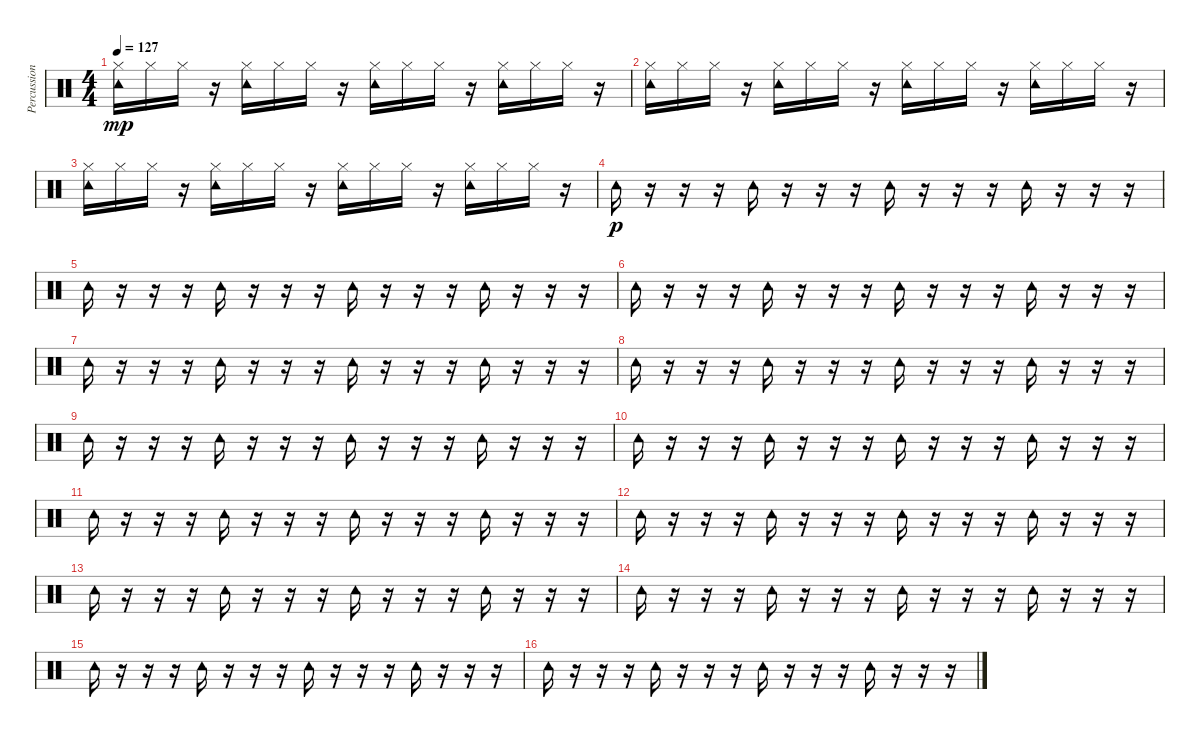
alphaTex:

\track ("Percussions" "Percussion") {instrument percussion}
\staff {score}
\articulation defaults
\ts (4 4)
\tempo 127
\clef neutral
\ks c
("Tambourine (hit)" "Hi-Hat (closed)").16{dy mp} "Hi-Hat (closed)".16 "Hi-Hat (closed)".16 r.16 ("Tambourine (hit)" "Hi-Hat (closed)").16 "Hi-Hat (closed)".16 "Hi-Hat (closed)".16 r.16 ("Tambourine (hit)" "Hi-Hat (closed)").16 "Hi-Hat (closed)".16 "Hi-Hat (closed)".16 r.16 ("Tambourine (hit)" "Hi-Hat (closed)").16 "Hi-Hat (closed)".16 "Hi-Hat (closed)".16 r.16 |
("Tambourine (hit)" "Hi-Hat (closed)").16 "Hi-Hat (closed)".16 "Hi-Hat (closed)".16 r.16 ("Tambourine (hit)" "Hi-Hat (closed)").16 "Hi-Hat (closed)".16 "Hi-Hat (closed)".16 r.16 ("Tambourine (hit)" "Hi-Hat (closed)").16 "Hi-Hat (closed)".16 "Hi-Hat (closed)".16 r.16 ("Tambourine (hit)" "Hi-Hat (closed)").16 "Hi-Hat (closed)".16 "Hi-Hat (closed)".16 r.16 |
("Tambourine (hit)" "Hi-Hat (closed)").16 "Hi-Hat (closed)".16 "Hi-Hat (closed)".16 r.16 ("Tambourine (hit)" "Hi-Hat (closed)").16 "Hi-Hat (closed)".16 "Hi-Hat (closed)".16 r.16 ("Tambourine (hit)" "Hi-Hat (closed)").16 "Hi-Hat (closed)".16 "Hi-Hat (closed)".16 r.16 ("Tambourine (hit)" "Hi-Hat (closed)").16 "Hi-Hat (closed)".16 "Hi-Hat (closed)".16 r.16 |
"Tambourine (hit)".16{dy p} r.16 r.16 r.16 "Tambourine (hit)".16 r.16 r.16 r.16 "Tambourine (hit)".16 r.16 r.16 r.16 "Tambourine (hit)".16 r.16 r.16 r.16 |
"Tambourine (hit)".16 r.16 r.16 r.16 "Tambourine (hit)".16 r.16 r.16 r.16 "Tambourine (hit)".16 r.16 r.16 r.16 "Tambourine (hit)".16 r.16 r.16 r.16 |
"Tambourine (hit)".16 r.16 r.16 r.16 "Tambourine (hit)".16 r.16 r.16 r.16 "Tambourine (hit)".16 r.16 r.16 r.16 "Tambourine (hit)".16 r.16 r.16 r.16 |
"Tambourine (hit)".16 r.16 r.16 r.16 "Tambourine (hit)".16 r.16 r.16 r.16 "Tambourine (hit)".16 r.16 r.16 r.16 "Tambourine (hit)".16 r.16 r.16 r.16 |
"Tambourine (hit)".16 r.16 r.16 r.16 "Tambourine (hit)".16 r.16 r.16 r.16 "Tambourine (hit)".16 r.16 r.16 r.16 "Tambourine (hit)".16 r.16 r.16 r.16 |
"Tambourine (hit)".16 r.16 r.16 r.16 "Tambourine (hit)".16 r.16 r.16 r.16 "Tambourine (hit)".16 r.16 r.16 r.16 "Tambourine (hit)".16 r.16 r.16 r.16 |
"Tambourine (hit)".16 r.16 r.16 r.16 "Tambourine (hit)".16 r.16 r.16 r.16 "Tambourine (hit)".16 r.16 r.16 r.16 "Tambourine (hit)".16 r.16 r.16 r.16 |
"Tambourine (hit)".16 r.16 r.16 r.16 "Tambourine (hit)".16 r.16 r.16 r.16 "Tambourine (hit)".16 r.16 r.16 r.16 "Tambourine (hit)".16 r.16 r.16 r.16 |
"Tambourine (hit)".16 r.16 r.16 r.16 "Tambourine (hit)".16 r.16 r.16 r.16 "Tambourine (hit)".16 r.16 r.16 r.16 "Tambourine (hit)".16 r.16 r.16 r.16 |
"Tambourine (hit)".16 r.16 r.16 r.16 "Tambourine (hit)".16 r.16 r.16 r.16 "Tambourine (hit)".16 r.16 r.16 r.16 "Tambourine (hit)".16 r.16 r.16 r.16 |
"Tambourine (hit)".16 r.16 r.16 r.16 "Tambourine (hit)".16 r.16 r.16 r.16 "Tambourine (hit)".16 r.16 r.16 r.16 "Tambourine (hit)".16 r.16 r.16 r.16 |
"Tambourine (hit)".16 r.16 r.16 r.16 "Tambourine (hit)".16 r.16 r.16 r.16 "Tambourine (hit)".16 r.16 r.16 r.16 "Tambourine (hit)".16 r.16 r.16 r.16 |
"Tambourine (hit)".16 r.16 r.16 r.16 "Tambourine (hit)".16 r.16 r.16 r.16 "Tambourine (hit)".16 r.16 r.16 r.16 "Tambourine (hit)".16 r.16 r.16 r.16
